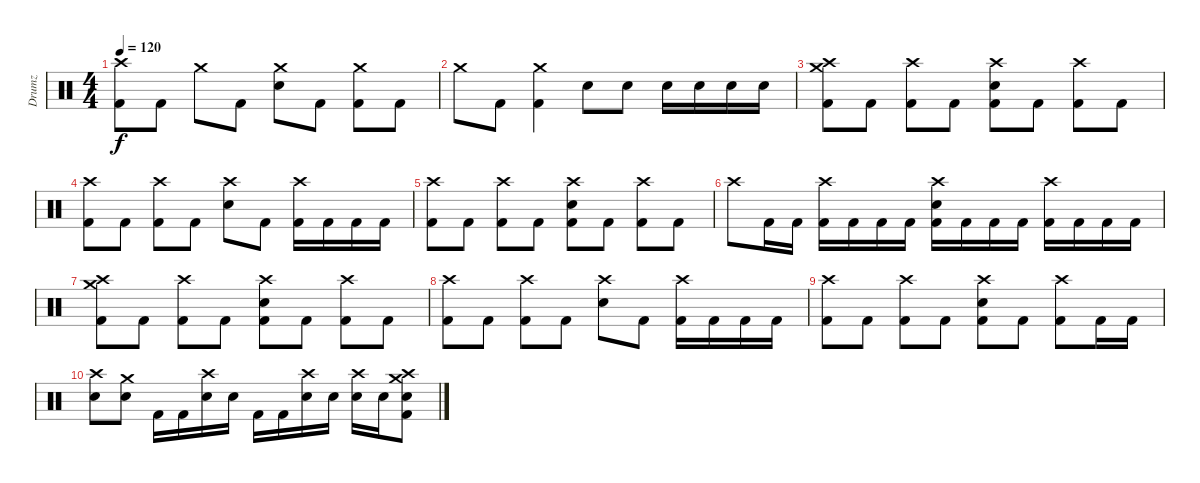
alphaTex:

\track ("Drumz" "Drumz") {instrument percussion}
\staff {score}
\articulation defaults
\ts (4 4)
\tempo 120
\clef neutral
\ks c
("Crash high (hit)" "Kick (hit) 2").8{dy f} "Kick (hit) 2".8 "Crash medium (hit)".8 "Kick (hit) 2".8 ("Crash medium (hit)" "Electric Snare (hit)").8 "Kick (hit) 2".8 ("Kick (hit) 2" "Crash medium (hit)").8 "Kick (hit) 2".8 |
"Crash medium (hit)".8 "Kick (hit) 2".8 ("Kick (hit) 2" "Crash medium (hit)").4 "Electric Snare (hit)".8 "Electric Snare (hit)".8 "Electric Snare (hit)".16 "Electric Snare (hit)".16 "Electric Snare (hit)".16 "Electric Snare (hit)".16 |
("Crash medium (hit)" "Kick (hit) 2" "Crash high (hit)").8 "Kick (hit) 2".8 ("Crash high (hit)" "Kick (hit) 2").8 "Kick (hit) 2".8 ("Crash high (hit)" "Electric Snare (hit)" "Kick (hit) 2").8 "Kick (hit) 2".8 ("Kick (hit) 2" "Crash high (hit)").8 "Kick (hit) 2".8 |
("Crash high (hit)" "Kick (hit) 2").8 "Kick (hit) 2".8 ("Kick (hit) 2" "Crash high (hit)").8 "Kick (hit) 2".8 ("Crash high (hit)" "Electric Snare (hit)").8 "Kick (hit) 2".8 ("Crash high (hit)" "Kick (hit) 2").16 "Kick (hit) 2".16 "Kick (hit) 2".16 "Kick (hit) 2".16 |
("Crash high (hit)" "Kick (hit) 2").8 "Kick (hit) 2".8 ("Crash high (hit)" "Kick (hit) 2").8 "Kick (hit) 2".8 ("Crash high (hit)" "Electric Snare (hit)" "Kick (hit) 2").8 "Kick (hit) 2".8 ("Kick (hit) 2" "Crash high (hit)").8 "Kick (hit) 2".8 |
"Crash high (hit)".8 "Kick (hit) 2".16 "Kick (hit) 2".16 ("Kick (hit) 2" "Crash high (hit)").16 "Kick (hit) 2".16 "Kick (hit) 2".16 "Kick (hit) 2".16 ("Kick (hit) 2" "Crash high (hit)" "Electric Snare (hit)").16 "Kick (hit) 2".16 "Kick (hit) 2".16 "Kick (hit) 2".16 ("Kick (hit) 2" "Crash high (hit)").16 "Kick (hit) 2".16 "Kick (hit) 2".16 "Kick (hit) 2".16 |
("Crash medium (hit)" "Kick (hit) 2" "Crash high (hit)").8 "Kick (hit) 2".8 ("Crash high (hit)" "Kick (hit) 2").8 "Kick (hit) 2".8 ("Crash high (hit)" "Electric Snare (hit)" "Kick (hit) 2").8 "Kick (hit) 2".8 ("Kick (hit) 2" "Crash high (hit)").8 "Kick (hit) 2".8 |
("Crash high (hit)" "Kick (hit) 2").8 "Kick (hit) 2".8 ("Kick (hit) 2" "Crash high (hit)").8 "Kick (hit) 2".8 ("Crash high (hit)" "Electric Snare (hit)").8 "Kick (hit) 2".8 ("Crash high (hit)" "Kick (hit) 2").16 "Kick (hit) 2".16 "Kick (hit) 2".16 "Kick (hit) 2".16 |
("Crash high (hit)" "Kick (hit) 2").8 "Kick (hit) 2".8 ("Crash high (hit)" "Kick (hit) 2").8 "Kick (hit) 2".8 ("Crash high (hit)" "Electric Snare (hit)" "Kick (hit) 2").8 "Kick (hit) 2".8 ("Kick (hit) 2" "Crash high (hit)").8 "Kick (hit) 2".16 "Kick (hit) 2".16 |
("Electric Snare (hit)" "Crash high (hit)").8 ("Electric Snare (hit)" "Crash medium (hit)").8 "Kick (hit) 2".16 "Kick (hit) 2".16 ("Electric Snare (hit)" "Crash high (hit)").16 "Electric Snare (hit)".16 "Kick (hit) 2".16 "Kick (hit) 2".16 ("Electric Snare (hit)" "Crash high (hit)").16 "Electric Snare (hit)".16 ("Electric Snare (hit)" "Crash high (hit)").16 "Electric Snare (hit)".16 ("Electric Snare (hit)" "Crash high (hit)" "Crash medium (hit)" "Kick (hit) 2").8
